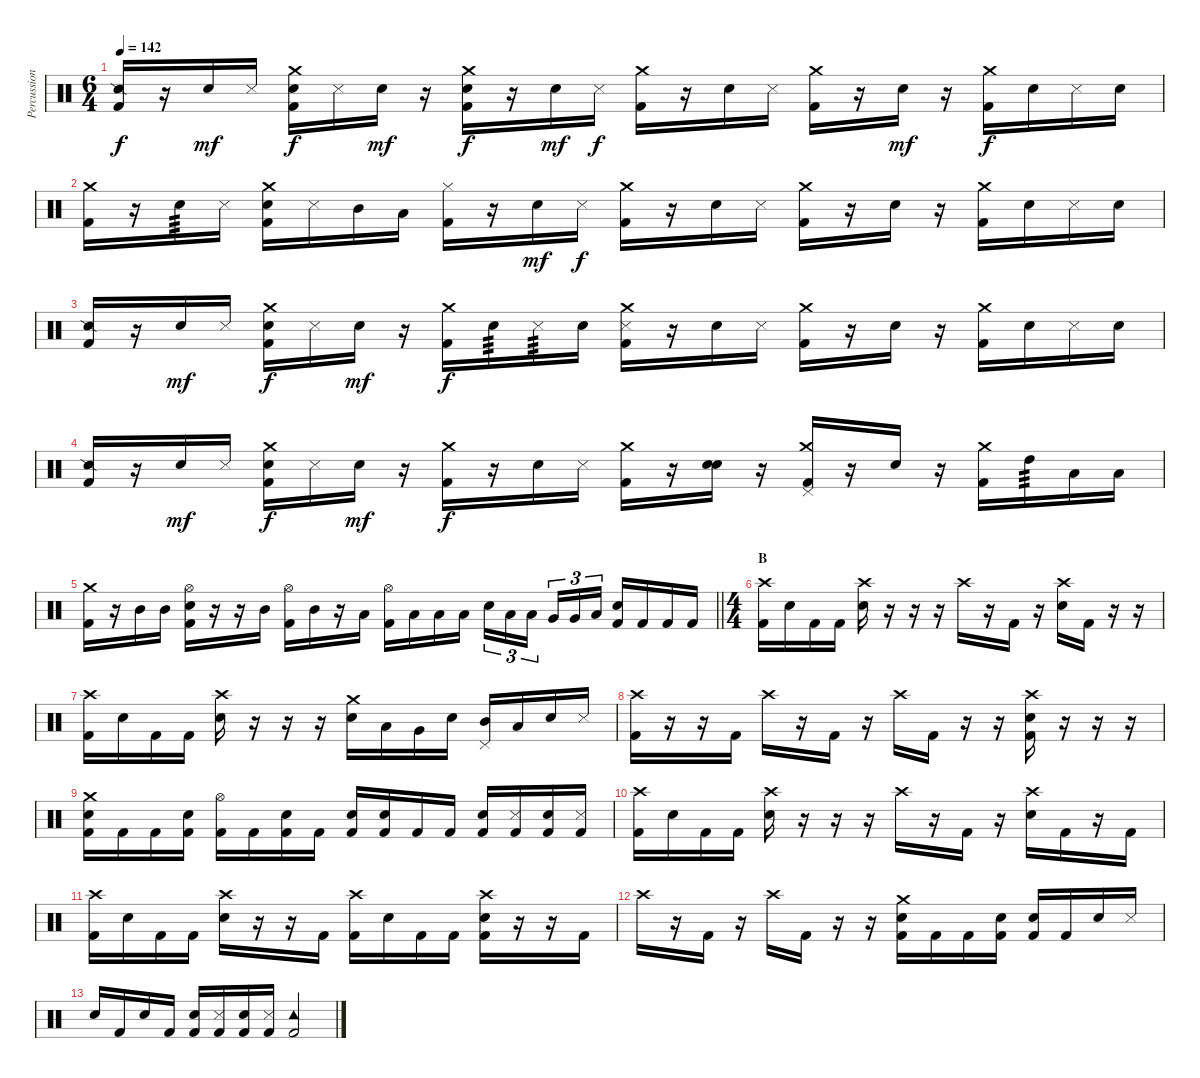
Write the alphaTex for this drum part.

\track ("Percussion" "Percussion") {instrument percussion}
\staff {score}
\articulation defaults
\ts (6 4)
\tempo 142
\clef neutral
\ks c
("Snare (side stick) 2" "Kick (hit) 2").16{dy f} r.16 "Snare (hit) 2".16{dy mf} "Metronome (hit)".16 ("Crash medium (hit)" "Snare (hit) 2" "Kick (hit) 2").16{dy f} "Metronome (hit)".16 "Snare (hit) 2".16{dy mf} r.16 ("Crash medium (hit)" "Snare (hit) 2" "Kick (hit) 2").16{dy f} r.16 "Snare (hit) 2".16{dy mf} "Metronome (hit)".16{dy f} ("Crash medium (hit)" "Kick (hit) 2").16 r.16 "Snare (hit) 2".16 "Metronome (hit)".16 ("Crash medium (hit)" "Kick (hit) 2").16 r.16 "Snare (hit) 2".16{dy mf} r.16 ("Crash medium (hit)" "Kick (hit) 2").16{dy f} "Snare (hit) 2".16 "Metronome (hit)".16 "Snare (hit) 2".16 |
("Crash medium (hit)" "Kick (hit) 2").16 r.16 "Snare (hit) 2".16{tp 3} "Metronome (hit)".16 ("Crash medium (hit)" "Snare (hit) 2" "Kick (hit) 2").16 "Metronome (hit)".16 "Mid Tom (hit)".16 "Low Tom (hit)".16 ("Hi-Hat (closed)" "Kick (hit) 2").16 r.16 "Snare (hit) 2".16{dy mf} "Metronome (hit)".16{dy f} ("Crash medium (hit)" "Kick (hit) 2").16 r.16 "Snare (hit) 2".16 "Metronome (hit)".16 ("Crash medium (hit)" "Kick (hit) 2").16 r.16 "Snare (hit) 2".16 r.16 ("Crash medium (hit)" "Kick (hit) 2").16 "Snare (hit) 2".16 "Metronome (hit)".16 "Snare (hit) 2".16 |
("Snare (side stick) 2" "Kick (hit) 2").16 r.16 "Snare (hit) 2".16{dy mf} "Metronome (hit)".16 ("Crash medium (hit)" "Snare (hit) 2" "Kick (hit) 2").16{dy f} "Metronome (hit)".16 "Snare (hit) 2".16{dy mf} r.16 ("Crash medium (hit)" "Kick (hit) 2").16{dy f} "Snare (hit) 2".16{tp 3} "Metronome (hit)".16{tp 3} "Snare (hit) 2".16 ("Crash medium (hit)" "Metronome (hit)" "Kick (hit) 2").16 r.16 "Snare (hit) 2".16 "Metronome (hit)".16 ("Crash medium (hit)" "Kick (hit) 2").16 r.16 "Snare (hit) 2".16 r.16 ("Crash medium (hit)" "Kick (hit) 2").16 "Snare (hit) 2".16 "Metronome (hit)".16 "Snare (hit) 2".16 |
("Snare (side stick) 2" "Kick (hit) 2").16 r.16 "Snare (hit) 2".16{dy mf} "Metronome (hit)".16 ("Crash medium (hit)" "Snare (hit) 2" "Kick (hit) 2").16{dy f} "Metronome (hit)".16 "Snare (hit) 2".16{dy mf} r.16 ("Crash medium (hit)" "Kick (hit) 2").16{dy f} r.16 "Snare (hit) 2".16 "Metronome (hit)".16 ("Crash medium (hit)" "Kick (hit) 2").16 r.16 ("Snare (hit)" "Snare (hit) 2").16 r.16 ("Crash medium (hit)" "Pedal Hi-Hat (hit)" "Kick (hit) 2").16 r.16 "Snare (hit) 2".16 r.16 ("Crash medium (hit)" "Kick (hit) 2").16 "High Tom (hit)".16{tp 3} "Low Tom (hit)".16 "Low Tom (hit)".16 |
\barLineRight lightlight
("Crash medium (hit)" "Kick (hit) 2").16 r.16 "Mid Tom (hit)".16 "Mid Tom (hit)".16 ("Hi-Hat (open)" "Snare (hit) 2" "Kick (hit) 2").16 r.16 r.16 "Mid Tom (hit)".16 ("Hi-Hat (open)" "Kick (hit) 2").16 "Mid Tom (hit)".16 r.16 "Low Tom (hit)".16 ("Hi-Hat (open)" "Kick (hit) 2").16 "Low Tom (hit)".16 "Low Tom (hit)".16 "Low Tom (hit)".16{beam splitsecondary} "Snare (hit) 2".16{tu (3 2)} "Low Tom (hit)".16{tu (3 2)} "Low Tom (hit)".16{tu (3 2) beam splitsecondary} "Very Low Tom (hit)".16{tu (3 2)} "Very Low Tom (hit)".16{tu (3 2)} "Low Floor Tom (hit)".16{tu (3 2) beam splitsecondary} ("Snare (hit)" "Kick (hit) 2").16 "Kick (hit) 2".16 "Kick (hit) 2".16 "Kick (hit) 2".16 |
\ts (4 4)
\section ("" "B")
("Crash high (hit)" "Kick (hit) 2").16 "Snare (hit) 2".16 "Kick (hit) 2".16 "Kick (hit) 2".16 ("Crash high (hit)" "Snare (hit) 2").16 r.16 r.16 r.16 "Crash high (hit)".16 r.16 "Kick (hit) 2".16 r.16 ("Crash high (hit)" "Snare (hit) 2").16 "Kick (hit) 2".16 r.16 r.16 |
("Crash high (hit)" "Kick (hit) 2").16 "Snare (hit) 2".16 "Kick (hit) 2".16 "Kick (hit) 2".16 ("Crash high (hit)" "Snare (hit) 2").16 r.16 r.16 r.16 ("Crash medium (hit)" "Snare (hit) 2").16 "Low Tom (hit)".16 "Very Low Tom (hit)".16 "Snare (hit) 2".16 ("Pedal Hi-Hat (hit)" "Mid Tom (hit)").16 "Low Tom (hit)".16 "Snare (hit) 2".16 "Metronome (hit)".16 |
("Crash high (hit)" "Kick (hit) 2").16 r.16 r.16 "Kick (hit) 2".16 "Crash high (hit)".16 r.16 "Kick (hit) 2".16 r.16 "Crash high (hit)".16 "Kick (hit) 2".16 r.16 r.16 ("Crash high (hit)" "Snare (hit) 2" "Kick (hit) 2").16 r.16 r.16 r.16 |
("Crash medium (hit)" "Snare (hit) 2" "Kick (hit) 2").16 "Kick (hit) 2".16 "Kick (hit) 2".16 ("Snare (hit) 2" "Kick (hit) 2").16 ("Hi-Hat (open)" "Kick (hit) 2").16 "Kick (hit) 2".16 ("Snare (hit) 2" "Kick (hit) 2").16 "Kick (hit) 2".16 ("Snare (hit)" "Kick (hit) 2").16 ("Snare (hit) 2" "Kick (hit) 2").16 "Kick (hit) 2".16 "Kick (hit) 2".16 ("Snare (hit) 2" "Kick (hit) 2").16 ("Metronome (hit)" "Kick (hit) 2").16 ("Snare (hit) 2" "Kick (hit) 2").16 ("Metronome (hit)" "Kick (hit) 2").16 |
("Crash high (hit)" "Kick (hit) 2").16 "Snare (hit) 2".16 "Kick (hit) 2".16 "Kick (hit) 2".16 ("Crash high (hit)" "Snare (hit) 2").16 r.16 r.16 r.16 "Crash high (hit)".16 r.16 "Kick (hit) 2".16 r.16 ("Crash high (hit)" "Snare (hit) 2").16 "Kick (hit) 2".16 r.16 "Kick (hit) 2".16 |
("Crash high (hit)" "Kick (hit) 2").16 "Snare (hit) 2".16 "Kick (hit) 2".16 "Kick (hit) 2".16 ("Crash high (hit)" "Snare (hit) 2").16 r.16 r.16 "Kick (hit) 2".16 ("Crash high (hit)" "Kick (hit) 2").16 "Snare (hit) 2".16 "Kick (hit) 2".16 "Kick (hit) 2".16 ("Crash high (hit)" "Snare (hit) 2" "Kick (hit) 2").16 r.16 r.16 "Kick (hit) 2".16 |
"Crash high (hit)".16 r.16 "Kick (hit) 2".16 r.16 "Crash high (hit)".16 "Kick (hit) 2".16 r.16 r.16 ("Crash medium (hit)" "Snare (hit) 2" "Kick (hit) 2").16 "Kick (hit) 2".16 "Kick (hit) 2".16 ("Snare (hit) 2" "Kick (hit) 2").16 ("Snare (hit)" "Kick (hit) 2").16 "Kick (hit) 2".16 "Snare (hit) 2".16 "Metronome (hit)".16 |
"Snare (hit) 2".16 "Kick (hit) 2".16 "Snare (hit) 2".16 "Kick (hit) 2".16 ("Snare (hit) 2" "Kick (hit) 2").16 ("Metronome (hit)" "Kick (hit) 2").16 ("Snare (hit) 2" "Kick (hit) 2").16 ("Metronome (hit)" "Kick (hit) 2").16 ("Tambourine (hit)" "Kick (hit) 2").2
